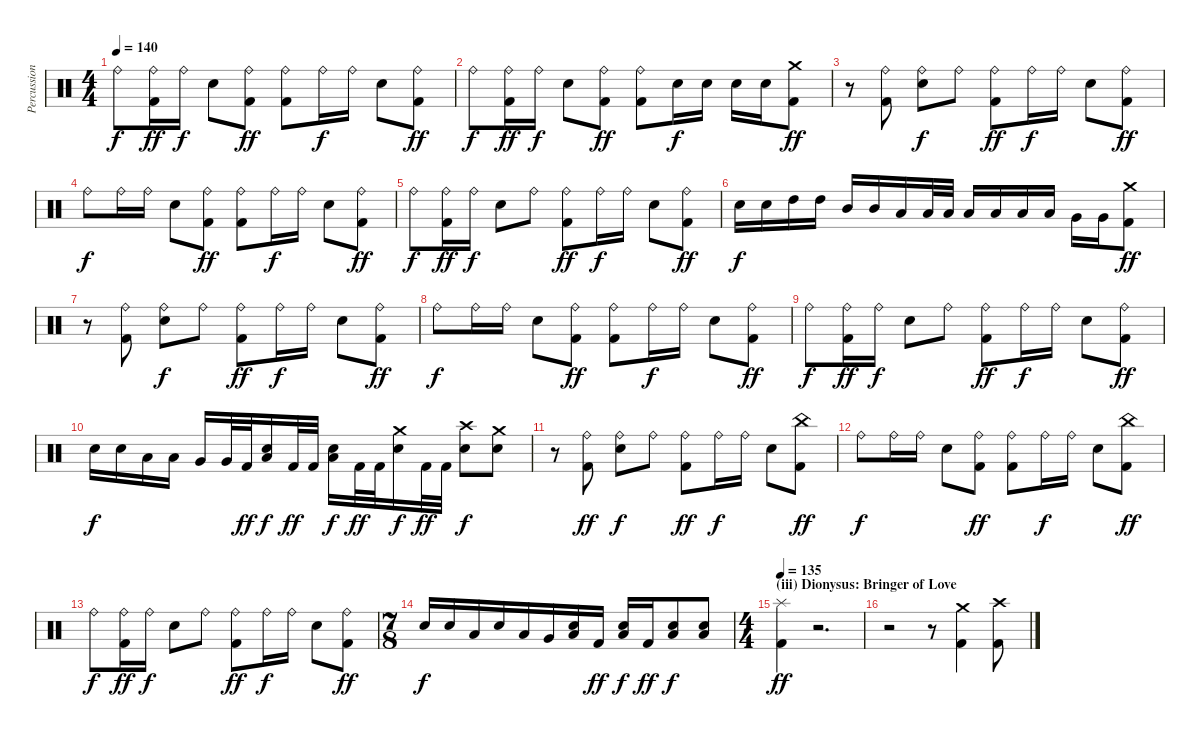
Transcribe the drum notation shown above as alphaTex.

\track ("Percussion" "Percussion") {instrument percussion}
\staff {score}
\articulation defaults
\ts (4 4)
\tempo 140
\clef neutral
\ks c "Ride (bell)".8{dy f}
("Kick (hit) 2" "Ride (bell)").16{dy ff} "Ride (bell)".16{dy f} "Snare (hit) 2".8 ("Kick (hit) 2" "Ride (bell)").8{dy ff} ("Kick (hit) 2" "Ride (bell)").8 "Ride (bell)".16{dy f} "Ride (bell)".16 "Snare (hit) 2".8 ("Kick (hit) 2" "Ride (bell)").8{dy ff} |
"Ride (bell)".8{dy f} ("Kick (hit) 2" "Ride (bell)").16{dy ff} "Ride (bell)".16{dy f} "Snare (hit) 2".8 ("Kick (hit) 2" "Ride (bell)").8{dy ff} ("Kick (hit) 2" "Ride (bell)").8 "Snare (hit) 2".16{dy f} "Snare (hit) 2".16 "Snare (hit) 2".16 "Snare (hit) 2".16 ("Kick (hit) 2" "Crash medium (hit)").8{dy ff} |
r.8 ("Kick (hit) 2" "Ride (bell)").8 ("Snare (hit) 2" "Ride (bell)").8{dy f} "Ride (bell)".8 ("Kick (hit) 2" "Ride (bell)").8{dy ff} "Ride (bell)".16{dy f} "Ride (bell)".16 "Snare (hit) 2".8 ("Kick (hit) 2" "Ride (bell)").8{dy ff} |
"Ride (bell)".8{dy f} "Ride (bell)".16 "Ride (bell)".16 "Snare (hit) 2".8 ("Kick (hit) 2" "Ride (bell)").8{dy ff} ("Kick (hit) 2" "Ride (bell)").8 "Ride (bell)".16{dy f} "Ride (bell)".16 "Snare (hit) 2".8 ("Kick (hit) 2" "Ride (bell)").8{dy ff} |
"Ride (bell)".8{dy f} ("Kick (hit) 2" "Ride (bell)").16{dy ff} "Ride (bell)".16{dy f} "Snare (hit) 2".8 "Ride (bell)".8 ("Kick (hit) 2" "Ride (bell)").8{dy ff} "Ride (bell)".16{dy f} "Ride (bell)".16 "Snare (hit) 2".8 ("Kick (hit) 2" "Ride (bell)").8{dy ff} |
"Snare (hit) 2".16{dy f} "Snare (hit) 2".16 "High Tom (hit)".16 "High Tom (hit)".16 "Mid Tom (hit)".16 "Mid Tom (hit)".16 "Low Tom (hit)".16 "Low Tom (hit)".32 "Low Tom (hit)".32 "Low Tom (hit)".16 "Low Tom (hit)".16 "Low Tom (hit)".16 "Low Tom (hit)".16 "Very Low Tom (hit)".16 "Very Low Tom (hit)".16 ("Kick (hit) 2" "Crash medium (hit)").8{dy ff} |
r.8 ("Kick (hit) 2" "Ride (bell)").8 ("Snare (hit) 2" "Ride (bell)").8{dy f} "Ride (bell)".8 ("Kick (hit) 2" "Ride (bell)").8{dy ff} "Ride (bell)".16{dy f} "Ride (bell)".16 "Snare (hit) 2".8 ("Kick (hit) 2" "Ride (bell)").8{dy ff} |
"Ride (bell)".8{dy f} "Ride (bell)".16 "Ride (bell)".16 "Snare (hit) 2".8 ("Kick (hit) 2" "Ride (bell)").8{dy ff} ("Kick (hit) 2" "Ride (bell)").8 "Ride (bell)".16{dy f} "Ride (bell)".16 "Snare (hit) 2".8 ("Kick (hit) 2" "Ride (bell)").8{dy ff} |
"Ride (bell)".8{dy f} ("Kick (hit) 2" "Ride (bell)").16{dy ff} "Ride (bell)".16{dy f} "Snare (hit) 2".8 "Ride (bell)".8 ("Kick (hit) 2" "Ride (bell)").8{dy ff} "Ride (bell)".16{dy f} "Ride (bell)".16 "Snare (hit) 2".8 ("Kick (hit) 2" "Ride (bell)").8{dy ff} |
"Snare (hit) 2".16{dy f} "Snare (hit) 2".16 "Low Tom (hit)".16 "Low Tom (hit)".16 "Very Low Tom (hit)".16 "Very Low Tom (hit)".32 "Kick (hit) 2".32{dy ff} ("Snare (hit) 2" "Low Floor Tom (hit)").16{dy f} "Kick (hit) 2".32{dy ff} "Kick (hit) 2".32 ("Snare (hit) 2" "Low Floor Tom (hit)").16{dy f} "Kick (hit) 2".32{dy ff} "Kick (hit) 2".32 ("Snare (hit) 2" "Crash medium (hit)").16{dy f} "Kick (hit) 2".32{dy ff} "Kick (hit) 2".32 ("Snare (hit) 2" "Crash high (hit)").8{dy f} ("Snare (hit) 2" "Crash medium (hit)").8 |
r.8 ("Kick (hit) 2" "Ride (bell)").8{dy ff} ("Snare (hit) 2" "Ride (bell)").8{dy f} "Ride (bell)".8 ("Kick (hit) 2" "Ride (bell)").8{dy ff} "Ride (bell)".16{dy f} "Ride (bell)".16 "Snare (hit) 2".8 ("Kick (hit) 2" "China (hit)").8{dy ff} |
"Ride (bell)".8{dy f} "Ride (bell)".16 "Ride (bell)".16 "Snare (hit) 2".8 ("Kick (hit) 2" "Ride (bell)").8{dy ff} ("Kick (hit) 2" "Ride (bell)").8 "Ride (bell)".16{dy f} "Ride (bell)".16 "Snare (hit) 2".8 ("Kick (hit) 2" "China (hit)").8{dy ff} |
"Ride (bell)".8{dy f} ("Kick (hit) 2" "Ride (bell)").16{dy ff} "Ride (bell)".16{dy f} "Snare (hit) 2".8 "Ride (bell)".8 ("Kick (hit) 2" "Ride (bell)").8{dy ff} "Ride (bell)".16{dy f} "Ride (bell)".16 "Snare (hit) 2".8 ("Kick (hit) 2" "Ride (bell)").8{dy ff} |
\ts (7 8)
"Snare (hit) 2".16{dy f} "Snare (hit) 2".16 "Low Tom (hit)".16 "Snare (hit) 2".16 "Low Tom (hit)".16 "Very Low Tom (hit)".16 ("Snare (hit) 2" "Low Floor Tom (hit)").16 "Kick (hit) 2".16{dy ff} ("Snare (hit) 2" "Low Floor Tom (hit)").16{dy f} "Kick (hit) 2".16{dy ff} ("Snare (hit) 2" "Low Floor Tom (hit)").8{dy f} ("Snare (hit) 2" "Low Floor Tom (hit)").8 |
\ts (4 4)
\section ("" "(iii) Dionysus: Bringer of Love")
\tempo 135
("Kick (hit) 2" "Splash (hit)").4{dy ff} r.2{d} |
r.2 r.8 ("Kick (hit) 2" "Crash medium (hit)").4 ("Kick (hit) 2" "Crash high (hit)").8
